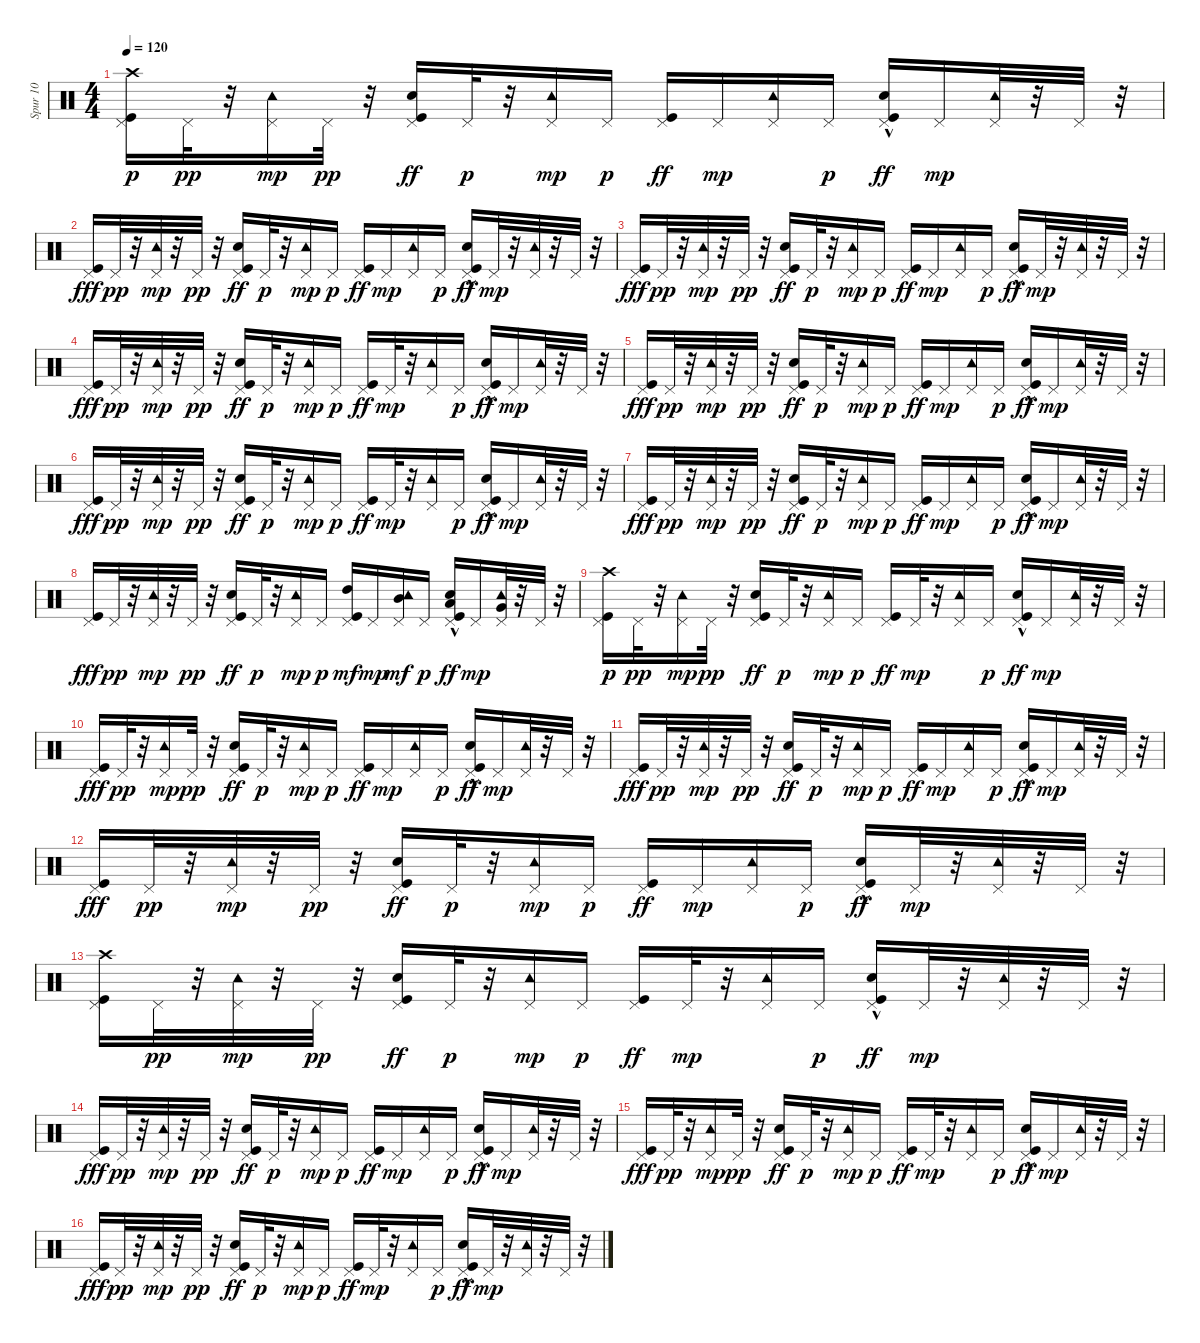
\track ("Spur 10" "Spur 10") {instrument percussion}
\staff {score}
\articulation defaults
\ts (4 4)
\tempo 120
\clef neutral
\ks c
("Pedal Hi-Hat (hit)" "Kick (hit)" "Crash high (hit)").16{dy p} "Pedal Hi-Hat (hit)".32{dy pp} r.32 ("Pedal Hi-Hat (hit)" "Tambourine (hit)").16{dy mp} "Pedal Hi-Hat (hit)".32{dy pp} r.32 ("Kick (hit)" "Pedal Hi-Hat (hit)" "Snare (hit) 2").16{dy ff} "Pedal Hi-Hat (hit)".32{dy p} r.32 ("Pedal Hi-Hat (hit)" "Tambourine (hit)").16{dy mp} "Pedal Hi-Hat (hit)".16{dy p} ("Kick (hit)" "Pedal Hi-Hat (hit)").16{dy ff} "Pedal Hi-Hat (hit)".16{dy mp} ("Pedal Hi-Hat (hit)" "Tambourine (hit)").16 "Pedal Hi-Hat (hit)".16{dy p} ("Kick (hit)"{hac} "Pedal Hi-Hat (hit)" "Snare (hit) 2"{hac}).16{dy ff} "Pedal Hi-Hat (hit)".16{dy mp} ("Pedal Hi-Hat (hit)" "Tambourine (hit)").32 r.32 "Pedal Hi-Hat (hit)".32 r.32 |
("Pedal Hi-Hat (hit)" "Kick (hit)").16{dy fff} "Pedal Hi-Hat (hit)".32{dy pp} r.32 ("Pedal Hi-Hat (hit)" "Tambourine (hit)").32{dy mp} r.32 "Pedal Hi-Hat (hit)".32{dy pp} r.32 ("Kick (hit)" "Pedal Hi-Hat (hit)" "Snare (hit) 2").16{dy ff} "Pedal Hi-Hat (hit)".32{dy p} r.32 ("Pedal Hi-Hat (hit)" "Tambourine (hit)").16{dy mp} "Pedal Hi-Hat (hit)".16{dy p} ("Kick (hit)" "Pedal Hi-Hat (hit)").16{dy ff} "Pedal Hi-Hat (hit)".16{dy mp} ("Pedal Hi-Hat (hit)" "Tambourine (hit)").16 "Pedal Hi-Hat (hit)".16{dy p} ("Kick (hit)"{hac} "Pedal Hi-Hat (hit)" "Snare (hit) 2"{hac}).16{dy ff} "Pedal Hi-Hat (hit)".32{dy mp} r.32 ("Pedal Hi-Hat (hit)" "Tambourine (hit)").32 r.32 "Pedal Hi-Hat (hit)".32 r.32 |
("Pedal Hi-Hat (hit)" "Kick (hit)").16{dy fff} "Pedal Hi-Hat (hit)".32{dy pp} r.32 ("Pedal Hi-Hat (hit)" "Tambourine (hit)").32{dy mp} r.32 "Pedal Hi-Hat (hit)".32{dy pp} r.32 ("Kick (hit)" "Pedal Hi-Hat (hit)" "Snare (hit) 2").16{dy ff} "Pedal Hi-Hat (hit)".32{dy p} r.32 ("Pedal Hi-Hat (hit)" "Tambourine (hit)").16{dy mp} "Pedal Hi-Hat (hit)".16{dy p} ("Kick (hit)" "Pedal Hi-Hat (hit)").16{dy ff} "Pedal Hi-Hat (hit)".16{dy mp} ("Pedal Hi-Hat (hit)" "Tambourine (hit)").16 "Pedal Hi-Hat (hit)".16{dy p} ("Kick (hit)"{hac} "Pedal Hi-Hat (hit)" "Snare (hit) 2"{hac}).16{dy ff} "Pedal Hi-Hat (hit)".32{dy mp} r.32 ("Pedal Hi-Hat (hit)" "Tambourine (hit)").32 r.32 "Pedal Hi-Hat (hit)".32 r.32 |
("Pedal Hi-Hat (hit)" "Kick (hit)").16{dy fff} "Pedal Hi-Hat (hit)".32{dy pp} r.32 ("Pedal Hi-Hat (hit)" "Tambourine (hit)").32{dy mp} r.32 "Pedal Hi-Hat (hit)".32{dy pp} r.32 ("Kick (hit)" "Pedal Hi-Hat (hit)" "Snare (hit) 2").16{dy ff} "Pedal Hi-Hat (hit)".32{dy p} r.32 ("Pedal Hi-Hat (hit)" "Tambourine (hit)").16{dy mp} "Pedal Hi-Hat (hit)".16{dy p} ("Kick (hit)" "Pedal Hi-Hat (hit)").16{dy ff} "Pedal Hi-Hat (hit)".32{dy mp} r.32 ("Pedal Hi-Hat (hit)" "Tambourine (hit)").16 "Pedal Hi-Hat (hit)".16{dy p} ("Kick (hit)"{hac} "Pedal Hi-Hat (hit)" "Snare (hit) 2"{hac}).16{dy ff} "Pedal Hi-Hat (hit)".16{dy mp} ("Pedal Hi-Hat (hit)" "Tambourine (hit)").32 r.32 "Pedal Hi-Hat (hit)".32 r.32 |
("Pedal Hi-Hat (hit)" "Kick (hit)").16{dy fff} "Pedal Hi-Hat (hit)".32{dy pp} r.32 ("Pedal Hi-Hat (hit)" "Tambourine (hit)").32{dy mp} r.32 "Pedal Hi-Hat (hit)".32{dy pp} r.32 ("Kick (hit)" "Pedal Hi-Hat (hit)" "Snare (hit) 2").16{dy ff} "Pedal Hi-Hat (hit)".32{dy p} r.32 ("Pedal Hi-Hat (hit)" "Tambourine (hit)").16{dy mp} "Pedal Hi-Hat (hit)".16{dy p} ("Kick (hit)" "Pedal Hi-Hat (hit)").16{dy ff} "Pedal Hi-Hat (hit)".16{dy mp} ("Pedal Hi-Hat (hit)" "Tambourine (hit)").16 "Pedal Hi-Hat (hit)".16{dy p} ("Kick (hit)"{hac} "Pedal Hi-Hat (hit)" "Snare (hit) 2"{hac}).16{dy ff} "Pedal Hi-Hat (hit)".16{dy mp} ("Pedal Hi-Hat (hit)" "Tambourine (hit)").32 r.32 "Pedal Hi-Hat (hit)".32 r.32 |
("Pedal Hi-Hat (hit)" "Kick (hit)").16{dy fff} "Pedal Hi-Hat (hit)".32{dy pp} r.32 ("Pedal Hi-Hat (hit)" "Tambourine (hit)").32{dy mp} r.32 "Pedal Hi-Hat (hit)".32{dy pp} r.32 ("Kick (hit)" "Pedal Hi-Hat (hit)" "Snare (hit) 2").16{dy ff} "Pedal Hi-Hat (hit)".32{dy p} r.32 ("Pedal Hi-Hat (hit)" "Tambourine (hit)").16{dy mp} "Pedal Hi-Hat (hit)".16{dy p} ("Kick (hit)" "Pedal Hi-Hat (hit)").16{dy ff} "Pedal Hi-Hat (hit)".32{dy mp} r.32 ("Pedal Hi-Hat (hit)" "Tambourine (hit)").16 "Pedal Hi-Hat (hit)".16{dy p} ("Kick (hit)"{hac} "Pedal Hi-Hat (hit)" "Snare (hit) 2"{hac}).16{dy ff} "Pedal Hi-Hat (hit)".16{dy mp} ("Pedal Hi-Hat (hit)" "Tambourine (hit)").32 r.32 "Pedal Hi-Hat (hit)".32 r.32 |
("Pedal Hi-Hat (hit)" "Kick (hit)").16{dy fff} "Pedal Hi-Hat (hit)".32{dy pp} r.32 ("Pedal Hi-Hat (hit)" "Tambourine (hit)").32{dy mp} r.32 "Pedal Hi-Hat (hit)".32{dy pp} r.32 ("Kick (hit)" "Pedal Hi-Hat (hit)" "Snare (hit) 2").16{dy ff} "Pedal Hi-Hat (hit)".32{dy p} r.32 ("Pedal Hi-Hat (hit)" "Tambourine (hit)").16{dy mp} "Pedal Hi-Hat (hit)".16{dy p} ("Kick (hit)" "Pedal Hi-Hat (hit)").16{dy ff} "Pedal Hi-Hat (hit)".16{dy mp} ("Pedal Hi-Hat (hit)" "Tambourine (hit)").16 "Pedal Hi-Hat (hit)".16{dy p} ("Kick (hit)"{hac} "Pedal Hi-Hat (hit)" "Snare (hit) 2"{hac}).16{dy ff} "Pedal Hi-Hat (hit)".16{dy mp} ("Pedal Hi-Hat (hit)" "Tambourine (hit)").32 r.32 "Pedal Hi-Hat (hit)".32 r.32 |
("Pedal Hi-Hat (hit)" "Kick (hit)").16{dy fff} "Pedal Hi-Hat (hit)".32{dy pp} r.32 ("Pedal Hi-Hat (hit)" "Tambourine (hit)").32{dy mp} r.32 "Pedal Hi-Hat (hit)".32{dy pp} r.32 ("Kick (hit)" "Pedal Hi-Hat (hit)" "Snare (hit) 2").16{dy ff} "Pedal Hi-Hat (hit)".32{dy p} r.32 ("Pedal Hi-Hat (hit)" "Tambourine (hit)").16{dy mp} "Pedal Hi-Hat (hit)".16{dy p} ("Kick (hit)" "Pedal Hi-Hat (hit)" "High Tom (hit)").16{dy mf} "Pedal Hi-Hat (hit)".16{dy mp} ("Pedal Hi-Hat (hit)" "Tambourine (hit)" "Mid Tom (hit)").16{dy mf} "Pedal Hi-Hat (hit)".16{dy p} ("Kick (hit)"{hac} "Pedal Hi-Hat (hit)" "Snare (hit) 2"{hac} "Low Tom (hit)").16{dy ff} "Pedal Hi-Hat (hit)".16{dy mp} ("Pedal Hi-Hat (hit)" "Tambourine (hit)" "Very Low Tom (hit)").32 r.32 "Pedal Hi-Hat (hit)".32 r.32 |
("Pedal Hi-Hat (hit)" "Kick (hit)" "Crash high (hit)").16{dy p} "Pedal Hi-Hat (hit)".32{dy pp} r.32 ("Pedal Hi-Hat (hit)" "Tambourine (hit)").16{dy mp} "Pedal Hi-Hat (hit)".32{dy pp} r.32 ("Kick (hit)" "Pedal Hi-Hat (hit)" "Snare (hit) 2").16{dy ff} "Pedal Hi-Hat (hit)".32{dy p} r.32 ("Pedal Hi-Hat (hit)" "Tambourine (hit)").16{dy mp} "Pedal Hi-Hat (hit)".16{dy p} ("Kick (hit)" "Pedal Hi-Hat (hit)").16{dy ff} "Pedal Hi-Hat (hit)".32{dy mp} r.32 ("Pedal Hi-Hat (hit)" "Tambourine (hit)").16 "Pedal Hi-Hat (hit)".16{dy p} ("Kick (hit)"{hac} "Pedal Hi-Hat (hit)" "Snare (hit) 2"{hac}).16{dy ff} "Pedal Hi-Hat (hit)".16{dy mp} ("Pedal Hi-Hat (hit)" "Tambourine (hit)").32 r.32 "Pedal Hi-Hat (hit)".32 r.32 |
("Pedal Hi-Hat (hit)" "Kick (hit)").16{dy fff} "Pedal Hi-Hat (hit)".32{dy pp} r.32 ("Pedal Hi-Hat (hit)" "Tambourine (hit)").16{dy mp} "Pedal Hi-Hat (hit)".32{dy pp} r.32 ("Kick (hit)" "Pedal Hi-Hat (hit)" "Snare (hit) 2").16{dy ff} "Pedal Hi-Hat (hit)".32{dy p} r.32 ("Pedal Hi-Hat (hit)" "Tambourine (hit)").16{dy mp} "Pedal Hi-Hat (hit)".16{dy p} ("Kick (hit)" "Pedal Hi-Hat (hit)").16{dy ff} "Pedal Hi-Hat (hit)".16{dy mp} ("Pedal Hi-Hat (hit)" "Tambourine (hit)").16 "Pedal Hi-Hat (hit)".16{dy p} ("Kick (hit)"{hac} "Pedal Hi-Hat (hit)" "Snare (hit) 2"{hac}).16{dy ff} "Pedal Hi-Hat (hit)".16{dy mp} ("Pedal Hi-Hat (hit)" "Tambourine (hit)").32 r.32 "Pedal Hi-Hat (hit)".32 r.32 |
("Pedal Hi-Hat (hit)" "Kick (hit)").16{dy fff} "Pedal Hi-Hat (hit)".32{dy pp} r.32 ("Pedal Hi-Hat (hit)" "Tambourine (hit)").32{dy mp} r.32 "Pedal Hi-Hat (hit)".32{dy pp} r.32 ("Kick (hit)" "Pedal Hi-Hat (hit)" "Snare (hit) 2").16{dy ff} "Pedal Hi-Hat (hit)".32{dy p} r.32 ("Pedal Hi-Hat (hit)" "Tambourine (hit)").16{dy mp} "Pedal Hi-Hat (hit)".16{dy p} ("Kick (hit)" "Pedal Hi-Hat (hit)").16{dy ff} "Pedal Hi-Hat (hit)".16{dy mp} ("Pedal Hi-Hat (hit)" "Tambourine (hit)").16 "Pedal Hi-Hat (hit)".16{dy p} ("Kick (hit)"{hac} "Pedal Hi-Hat (hit)" "Snare (hit) 2"{hac}).16{dy ff} "Pedal Hi-Hat (hit)".16{dy mp} ("Pedal Hi-Hat (hit)" "Tambourine (hit)").32 r.32 "Pedal Hi-Hat (hit)".32 r.32 |
("Pedal Hi-Hat (hit)" "Kick (hit)").16{dy fff} "Pedal Hi-Hat (hit)".32{dy pp} r.32 ("Pedal Hi-Hat (hit)" "Tambourine (hit)").32{dy mp} r.32 "Pedal Hi-Hat (hit)".32{dy pp} r.32 ("Kick (hit)" "Pedal Hi-Hat (hit)" "Snare (hit) 2").16{dy ff} "Pedal Hi-Hat (hit)".32{dy p} r.32 ("Pedal Hi-Hat (hit)" "Tambourine (hit)").16{dy mp} "Pedal Hi-Hat (hit)".16{dy p} ("Kick (hit)" "Pedal Hi-Hat (hit)").16{dy ff} "Pedal Hi-Hat (hit)".16{dy mp} ("Pedal Hi-Hat (hit)" "Tambourine (hit)").16 "Pedal Hi-Hat (hit)".16{dy p} ("Kick (hit)"{hac} "Pedal Hi-Hat (hit)" "Snare (hit) 2"{hac}).16{dy ff} "Pedal Hi-Hat (hit)".32{dy mp} r.32 ("Pedal Hi-Hat (hit)" "Tambourine (hit)").32 r.32 "Pedal Hi-Hat (hit)".32 r.32 |
("Pedal Hi-Hat (hit)" "Kick (hit)" "Crash high (hit)").16 "Pedal Hi-Hat (hit)".32{dy pp} r.32 ("Pedal Hi-Hat (hit)" "Tambourine (hit)").32{dy mp} r.32 "Pedal Hi-Hat (hit)".32{dy pp} r.32 ("Kick (hit)" "Pedal Hi-Hat (hit)" "Snare (hit) 2").16{dy ff} "Pedal Hi-Hat (hit)".32{dy p} r.32 ("Pedal Hi-Hat (hit)" "Tambourine (hit)").16{dy mp} "Pedal Hi-Hat (hit)".16{dy p} ("Kick (hit)" "Pedal Hi-Hat (hit)").16{dy ff} "Pedal Hi-Hat (hit)".32{dy mp} r.32 ("Pedal Hi-Hat (hit)" "Tambourine (hit)").16 "Pedal Hi-Hat (hit)".16{dy p} ("Kick (hit)"{hac} "Pedal Hi-Hat (hit)" "Snare (hit) 2"{hac}).16{dy ff} "Pedal Hi-Hat (hit)".32{dy mp} r.32 ("Pedal Hi-Hat (hit)" "Tambourine (hit)").32 r.32 "Pedal Hi-Hat (hit)".32 r.32 |
("Pedal Hi-Hat (hit)" "Kick (hit)").16{dy fff} "Pedal Hi-Hat (hit)".32{dy pp} r.32 ("Pedal Hi-Hat (hit)" "Tambourine (hit)").32{dy mp} r.32 "Pedal Hi-Hat (hit)".32{dy pp} r.32 ("Kick (hit)" "Pedal Hi-Hat (hit)" "Snare (hit) 2").16{dy ff} "Pedal Hi-Hat (hit)".32{dy p} r.32 ("Pedal Hi-Hat (hit)" "Tambourine (hit)").16{dy mp} "Pedal Hi-Hat (hit)".16{dy p} ("Kick (hit)" "Pedal Hi-Hat (hit)").16{dy ff} "Pedal Hi-Hat (hit)".16{dy mp} ("Pedal Hi-Hat (hit)" "Tambourine (hit)").16 "Pedal Hi-Hat (hit)".16{dy p} ("Kick (hit)"{hac} "Pedal Hi-Hat (hit)" "Snare (hit) 2"{hac}).16{dy ff} "Pedal Hi-Hat (hit)".16{dy mp} ("Pedal Hi-Hat (hit)" "Tambourine (hit)").32 r.32 "Pedal Hi-Hat (hit)".32 r.32 |
("Pedal Hi-Hat (hit)" "Kick (hit)").16{dy fff} "Pedal Hi-Hat (hit)".32{dy pp} r.32 ("Pedal Hi-Hat (hit)" "Tambourine (hit)").16{dy mp} "Pedal Hi-Hat (hit)".32{dy pp} r.32 ("Kick (hit)" "Pedal Hi-Hat (hit)" "Snare (hit) 2").16{dy ff} "Pedal Hi-Hat (hit)".32{dy p} r.32 ("Pedal Hi-Hat (hit)" "Tambourine (hit)").16{dy mp} "Pedal Hi-Hat (hit)".16{dy p} ("Kick (hit)" "Pedal Hi-Hat (hit)").16{dy ff} "Pedal Hi-Hat (hit)".32{dy mp} r.32 ("Pedal Hi-Hat (hit)" "Tambourine (hit)").16 "Pedal Hi-Hat (hit)".16{dy p} ("Kick (hit)"{hac} "Pedal Hi-Hat (hit)" "Snare (hit) 2"{hac}).16{dy ff} "Pedal Hi-Hat (hit)".16{dy mp} ("Pedal Hi-Hat (hit)" "Tambourine (hit)").32 r.32 "Pedal Hi-Hat (hit)".32 r.32 |
("Pedal Hi-Hat (hit)" "Kick (hit)").16{dy fff} "Pedal Hi-Hat (hit)".32{dy pp} r.32 ("Pedal Hi-Hat (hit)" "Tambourine (hit)").32{dy mp} r.32 "Pedal Hi-Hat (hit)".32{dy pp} r.32 ("Kick (hit)" "Pedal Hi-Hat (hit)" "Snare (hit) 2").16{dy ff} "Pedal Hi-Hat (hit)".32{dy p} r.32 ("Pedal Hi-Hat (hit)" "Tambourine (hit)").16{dy mp} "Pedal Hi-Hat (hit)".16{dy p} ("Kick (hit)" "Pedal Hi-Hat (hit)").16{dy ff} "Pedal Hi-Hat (hit)".32{dy mp} r.32 ("Pedal Hi-Hat (hit)" "Tambourine (hit)").16 "Pedal Hi-Hat (hit)".16{dy p} ("Kick (hit)"{hac} "Pedal Hi-Hat (hit)" "Snare (hit) 2"{hac}).16{dy ff} "Pedal Hi-Hat (hit)".32{dy mp} r.32 ("Pedal Hi-Hat (hit)" "Tambourine (hit)").32 r.32 "Pedal Hi-Hat (hit)".32 r.32
